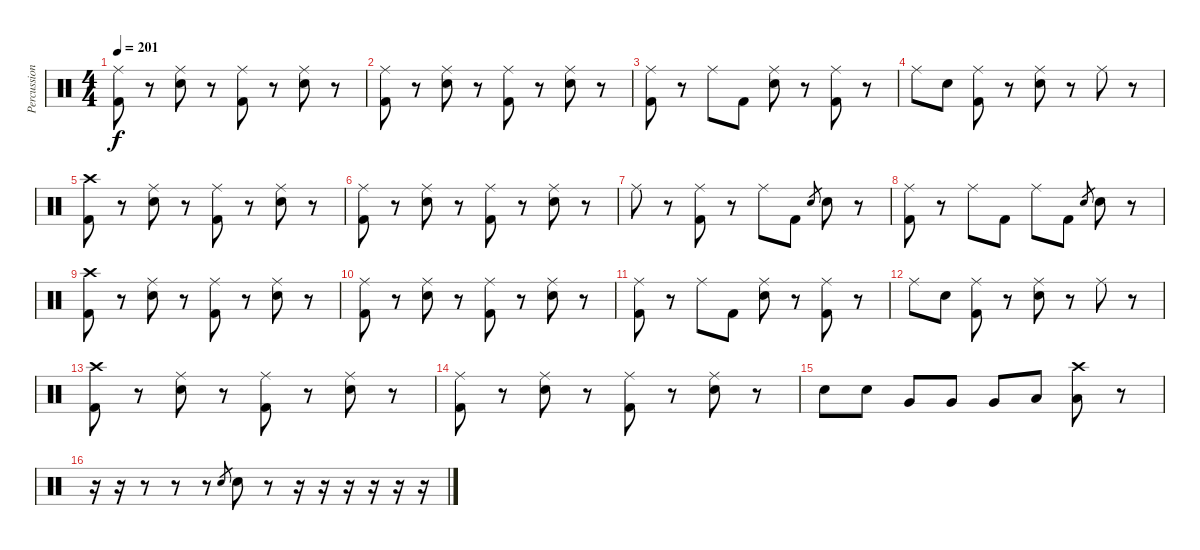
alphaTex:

\track ("Percussion" "Percussion") {instrument percussion}
\staff {score}
\articulation defaults
\ts (4 4)
\tempo 201
\clef neutral
\ks c
("Ride (middle)" "Kick (hit) 2").8{dy f} r.8 ("Ride (middle)" "Electric Snare (hit)").8 r.8 ("Ride (middle)" "Kick (hit) 2").8 r.8 ("Ride (middle)" "Electric Snare (hit)").8 r.8 |
("Ride (middle)" "Kick (hit) 2").8 r.8 ("Ride (middle)" "Electric Snare (hit)").8 r.8 ("Ride (middle)" "Kick (hit) 2").8 r.8 ("Ride (middle)" "Electric Snare (hit)").8 r.8 |
("Ride (middle)" "Kick (hit) 2").8 r.8 "Ride (middle)".8 "Kick (hit) 2".8 ("Ride (middle)" "Electric Snare (hit)").8 r.8 ("Ride (middle)" "Kick (hit) 2").8 r.8 |
"Ride (middle)".8 "Electric Snare (hit)".8 ("Ride (middle)" "Kick (hit) 2").8 r.8 ("Ride (middle)" "Electric Snare (hit)").8 r.8 "Ride (middle)".8 r.8 |
("Crash high (hit)" "Kick (hit) 2").8 r.8 ("Ride (middle)" "Electric Snare (hit)").8 r.8 ("Ride (middle)" "Kick (hit) 2").8 r.8 ("Ride (middle)" "Electric Snare (hit)").8 r.8 |
("Ride (middle)" "Kick (hit) 2").8 r.8 ("Ride (middle)" "Electric Snare (hit)").8 r.8 ("Ride (middle)" "Kick (hit) 2").8 r.8 ("Ride (middle)" "Electric Snare (hit)").8 r.8 |
"Ride (middle)".8 r.8 ("Ride (middle)" "Kick (hit) 2").8 r.8 "Ride (middle)".8 "Kick (hit) 2".8 "Electric Snare (hit)".8{gr} "Electric Snare (hit)".8 r.8 |
("Ride (middle)" "Kick (hit) 2").8 r.8 "Ride (middle)".8 "Kick (hit) 2".8 "Ride (middle)".8 "Kick (hit) 2".8 "Electric Snare (hit)".8{gr} "Electric Snare (hit)".8 r.8 |
("Crash high (hit)" "Kick (hit) 2").8 r.8 ("Ride (middle)" "Electric Snare (hit)").8 r.8 ("Ride (middle)" "Kick (hit) 2").8 r.8 ("Ride (middle)" "Electric Snare (hit)").8 r.8 |
("Ride (middle)" "Kick (hit) 2").8 r.8 ("Ride (middle)" "Electric Snare (hit)").8 r.8 ("Ride (middle)" "Kick (hit) 2").8 r.8 ("Ride (middle)" "Electric Snare (hit)").8 r.8 |
("Ride (middle)" "Kick (hit) 2").8 r.8 "Ride (middle)".8 "Kick (hit) 2".8 ("Ride (middle)" "Electric Snare (hit)").8 r.8 ("Ride (middle)" "Kick (hit) 2").8 r.8 |
"Ride (middle)".8 "Electric Snare (hit)".8 ("Ride (middle)" "Kick (hit) 2").8 r.8 ("Ride (middle)" "Electric Snare (hit)").8 r.8 "Ride (middle)".8 r.8 |
("Crash high (hit)" "Kick (hit) 2").8 r.8 ("Ride (middle)" "Electric Snare (hit)").8 r.8 ("Ride (middle)" "Kick (hit) 2").8 r.8 ("Ride (middle)" "Electric Snare (hit)").8 r.8 |
("Ride (middle)" "Kick (hit) 2").8 r.8 ("Ride (middle)" "Electric Snare (hit)").8 r.8 ("Ride (middle)" "Kick (hit) 2").8 r.8 ("Ride (middle)" "Electric Snare (hit)").8 r.8 |
"Electric Snare (hit)".8 "Electric Snare (hit)".8 "Very Low Tom (hit)".8 "Very Low Tom (hit)".8 "Very Low Tom (hit)".8 "Low Floor Tom (hit)".8 ("Crash high (hit)" "Low Floor Tom (hit)").8 r.8 |
r.16 r.16 r.8 r.8 r.8 "Electric Snare (hit)".8{gr} "Electric Snare (hit)".8 r.8 r.16 r.16 r.16 r.16 r.16 r.16
